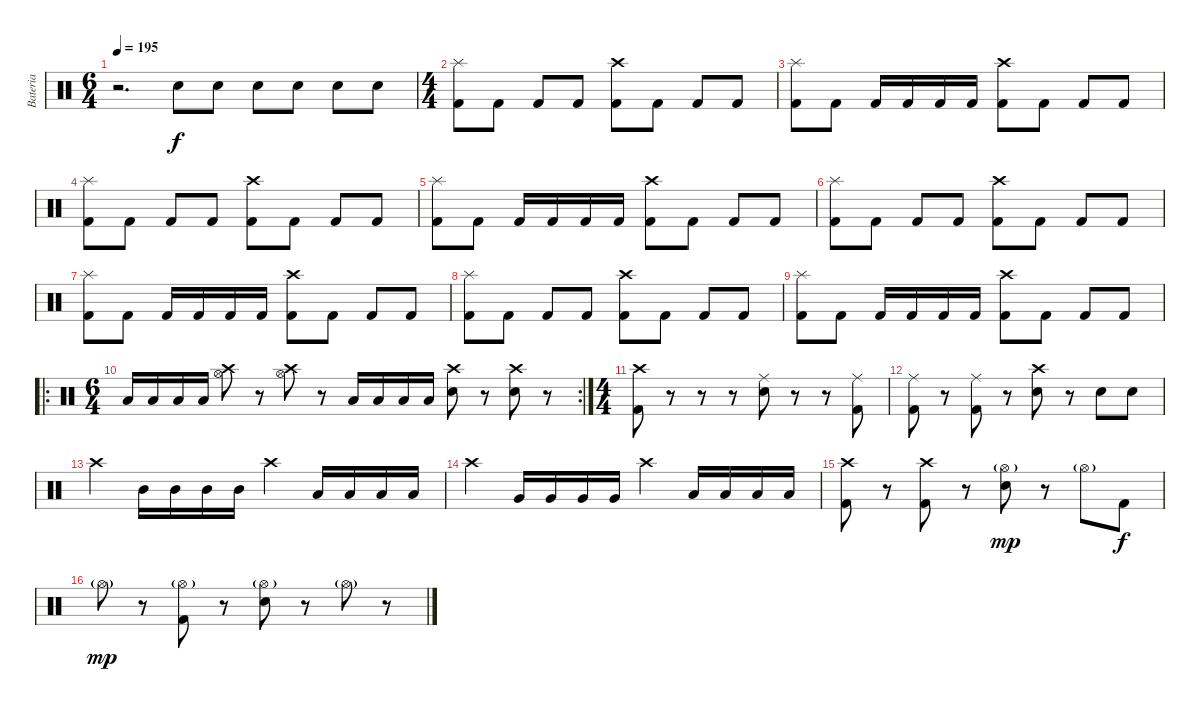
\track ("Bateria" "Bateria") {instrument percussion}
\staff {score}
\articulation defaults
\ts (6 4)
\tempo 195
\clef neutral
\ks c
r.2{d dy f} "Snare (hit) 2".8 "Snare (hit) 2".8 "Snare (hit) 2".8 "Snare (hit) 2".8 "Snare (hit) 2".8 "Snare (hit) 2".8 |
\ts (4 4)
("Splash (hit)" "Kick (hit) 2").8 "Kick (hit) 2".8 "Kick (hit) 2".8 "Kick (hit) 2".8 ("Crash high (hit)" "Kick (hit) 2").8 "Kick (hit) 2".8 "Kick (hit) 2".8 "Kick (hit) 2".8 |
("Splash (hit)" "Kick (hit) 2").8 "Kick (hit) 2".8 "Kick (hit) 2".16 "Kick (hit) 2".16 "Kick (hit) 2".16 "Kick (hit) 2".16 ("Crash high (hit)" "Kick (hit) 2").8 "Kick (hit) 2".8 "Kick (hit) 2".8 "Kick (hit) 2".8 |
("Splash (hit)" "Kick (hit) 2").8 "Kick (hit) 2".8 "Kick (hit) 2".8 "Kick (hit) 2".8 ("Crash high (hit)" "Kick (hit) 2").8 "Kick (hit) 2".8 "Kick (hit) 2".8 "Kick (hit) 2".8 |
("Splash (hit)" "Kick (hit) 2").8 "Kick (hit) 2".8 "Kick (hit) 2".16 "Kick (hit) 2".16 "Kick (hit) 2".16 "Kick (hit) 2".16 ("Crash high (hit)" "Kick (hit) 2").8 "Kick (hit) 2".8 "Kick (hit) 2".8 "Kick (hit) 2".8 |
("Splash (hit)" "Kick (hit) 2").8 "Kick (hit) 2".8 "Kick (hit) 2".8 "Kick (hit) 2".8 ("Crash high (hit)" "Kick (hit) 2").8 "Kick (hit) 2".8 "Kick (hit) 2".8 "Kick (hit) 2".8 |
("Splash (hit)" "Kick (hit) 2").8 "Kick (hit) 2".8 "Kick (hit) 2".16 "Kick (hit) 2".16 "Kick (hit) 2".16 "Kick (hit) 2".16 ("Crash high (hit)" "Kick (hit) 2").8 "Kick (hit) 2".8 "Kick (hit) 2".8 "Kick (hit) 2".8 |
("Splash (hit)" "Kick (hit) 2").8 "Kick (hit) 2".8 "Kick (hit) 2".8 "Kick (hit) 2".8 ("Crash high (hit)" "Kick (hit) 2").8 "Kick (hit) 2".8 "Kick (hit) 2".8 "Kick (hit) 2".8 |
("Splash (hit)" "Kick (hit) 2").8 "Kick (hit) 2".8 "Kick (hit) 2".16 "Kick (hit) 2".16 "Kick (hit) 2".16 "Kick (hit) 2".16 ("Crash high (hit)" "Kick (hit) 2").8 "Kick (hit) 2".8 "Kick (hit) 2".8 "Kick (hit) 2".8 |
\ro
\rc 2
\ts (6 4)
"Low Tom (hit)".16 "Low Tom (hit)".16 "Low Tom (hit)".16 "Low Tom (hit)".16 ("Crash high (hit)" "Hi-Hat (open)").8 r.8 ("Crash high (hit)" "Hi-Hat (open)").8 r.8 "Low Tom (hit)".16 "Low Tom (hit)".16 "Low Tom (hit)".16 "Low Tom (hit)".16 ("Crash high (hit)" "Snare (hit) 2").8 r.8 ("Crash high (hit)" "Snare (hit) 2").8 r.8 |
\ts (4 4)
("Crash high (hit)" "Kick (hit) 2").8 r.8 r.8 r.8 ("Ride (middle)" "Snare (hit) 2").8 r.8 r.8 ("Ride (middle)" "Kick (hit) 2").8 |
("Ride (middle)" "Kick (hit) 2").8 r.8 ("Ride (middle)" "Kick (hit) 2").8 r.8 ("Crash high (hit)" "Snare (hit) 2").8 r.8 "Snare (hit) 2".8 "Snare (hit) 2".8 |
"Crash high (hit)".4 "Mid Tom (hit)".16 "Mid Tom (hit)".16 "Mid Tom (hit)".16 "Mid Tom (hit)".16 "Crash high (hit)".4 "Low Tom (hit)".16 "Low Tom (hit)".16 "Low Tom (hit)".16 "Low Tom (hit)".16 |
"Crash high (hit)".4 "Very Low Tom (hit)".16 "Very Low Tom (hit)".16 "Very Low Tom (hit)".16 "Very Low Tom (hit)".16 "Crash high (hit)".4 "Low Floor Tom (hit)".16 "Low Floor Tom (hit)".16 "Low Floor Tom (hit)".16 "Low Floor Tom (hit)".16 |
("Crash high (hit)" "Kick (hit) 2").8 r.8 ("Crash high (hit)" "Kick (hit) 2").8 r.8 ("Hi-Hat (open)"{g} "Snare (hit) 2").8{dy mp} r.8 "Hi-Hat (open)"{g}.8 "Kick (hit) 2".8{dy f} |
"Hi-Hat (open)"{g}.8{dy mp} r.8 ("Hi-Hat (open)"{g} "Kick (hit) 2").8 r.8 ("Hi-Hat (open)"{g} "Snare (hit) 2").8 r.8 "Hi-Hat (open)"{g}.8 r.8
